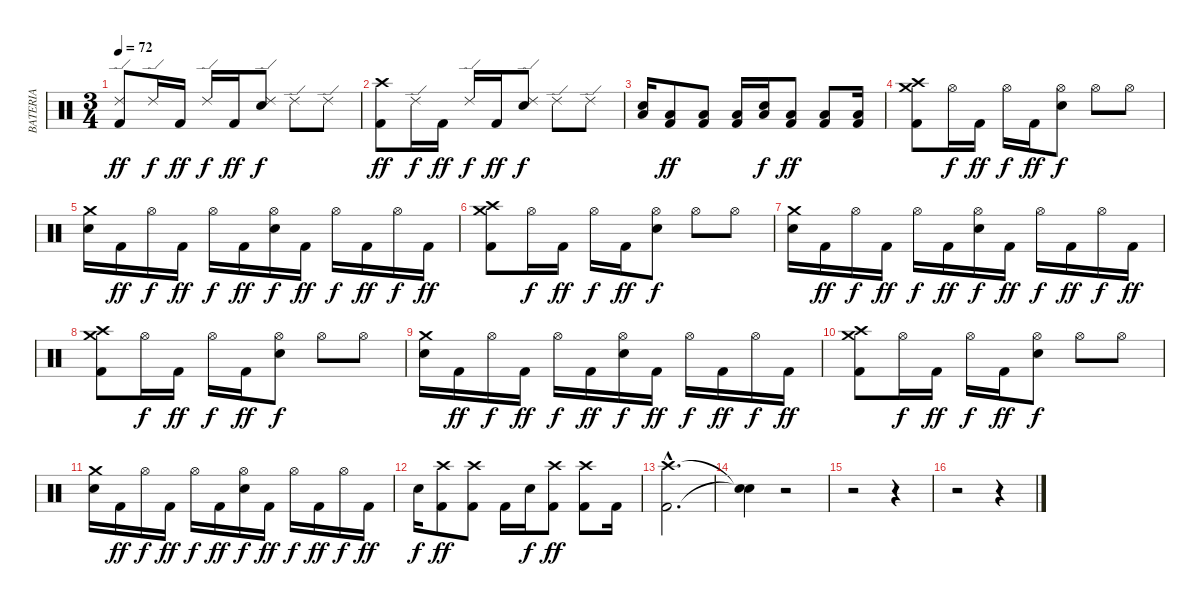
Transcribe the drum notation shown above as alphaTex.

\track ("BATERIA" "BATERIA") {instrument percussion}
\staff {score}
\articulation defaults
\ts (3 4)
\tempo 72
\clef neutral
\ks c
("Ride (edge) 2" "Kick (hit) 2").8{dy ff} "Ride (edge) 2".16{dy f} "Kick (hit) 2".16{dy ff} "Ride (edge) 2".16{dy f} "Kick (hit) 2".16{dy ff} ("Ride (edge) 2" "Snare (hit) 2").8{dy f} "Ride (edge) 2".8 "Ride (edge) 2".8 |
("Crash high (hit)" "Kick (hit) 2").8{dy ff} "Ride (edge) 2".16{dy f} "Kick (hit) 2".16{dy ff} "Ride (edge) 2".16{dy f} "Kick (hit) 2".16{dy ff} ("Ride (edge) 2" "Snare (hit) 2").8{dy f} "Ride (edge) 2".8 "Ride (edge) 2".8 |
("Low Tom (hit)" "Snare (hit) 2").16 ("Low Tom (hit)" "Kick (hit) 2").8{dy ff} ("Low Tom (hit)" "Kick (hit) 2").8 ("Low Tom (hit)" "Kick (hit) 2").16 ("Low Tom (hit)" "Snare (hit) 2").16{dy f} ("Low Tom (hit)" "Kick (hit) 2").8{dy ff} ("Low Tom (hit)" "Kick (hit) 2").8 ("Low Tom (hit)" "Kick (hit) 2").16 |
("Crash high (hit)" "Crash medium (hit)" "Kick (hit) 2").8 "Hi-Hat (open)".16{dy f} "Kick (hit) 2".16{dy ff} "Hi-Hat (open)".16{dy f} "Kick (hit) 2".16{dy ff} ("Hi-Hat (open)" "Snare (hit) 2").8{dy f} "Hi-Hat (open)".8 "Hi-Hat (open)".8 |
("Crash medium (hit)" "Snare (hit) 2").16 "Kick (hit) 2".16{dy ff} "Hi-Hat (open)".16{dy f} "Kick (hit) 2".16{dy ff} "Hi-Hat (open)".16{dy f} "Kick (hit) 2".16{dy ff} ("Hi-Hat (open)" "Snare (hit) 2").16{dy f} "Kick (hit) 2".16{dy ff} "Hi-Hat (open)".16{dy f} "Kick (hit) 2".16{dy ff} "Hi-Hat (open)".16{dy f} "Kick (hit) 2".16{dy ff} |
("Crash high (hit)" "Crash medium (hit)" "Kick (hit) 2").8 "Hi-Hat (open)".16{dy f} "Kick (hit) 2".16{dy ff} "Hi-Hat (open)".16{dy f} "Kick (hit) 2".16{dy ff} ("Hi-Hat (open)" "Snare (hit) 2").8{dy f} "Hi-Hat (open)".8 "Hi-Hat (open)".8 |
("Crash medium (hit)" "Snare (hit) 2").16 "Kick (hit) 2".16{dy ff} "Hi-Hat (open)".16{dy f} "Kick (hit) 2".16{dy ff} "Hi-Hat (open)".16{dy f} "Kick (hit) 2".16{dy ff} ("Hi-Hat (open)" "Snare (hit) 2").16{dy f} "Kick (hit) 2".16{dy ff} "Hi-Hat (open)".16{dy f} "Kick (hit) 2".16{dy ff} "Hi-Hat (open)".16{dy f} "Kick (hit) 2".16{dy ff} |
("Crash high (hit)" "Crash medium (hit)" "Kick (hit) 2").8 "Hi-Hat (open)".16{dy f} "Kick (hit) 2".16{dy ff} "Hi-Hat (open)".16{dy f} "Kick (hit) 2".16{dy ff} ("Hi-Hat (open)" "Snare (hit) 2").8{dy f} "Hi-Hat (open)".8 "Hi-Hat (open)".8 |
("Crash medium (hit)" "Snare (hit) 2").16 "Kick (hit) 2".16{dy ff} "Hi-Hat (open)".16{dy f} "Kick (hit) 2".16{dy ff} "Hi-Hat (open)".16{dy f} "Kick (hit) 2".16{dy ff} ("Hi-Hat (open)" "Snare (hit) 2").16{dy f} "Kick (hit) 2".16{dy ff} "Hi-Hat (open)".16{dy f} "Kick (hit) 2".16{dy ff} "Hi-Hat (open)".16{dy f} "Kick (hit) 2".16{dy ff} |
("Crash high (hit)" "Crash medium (hit)" "Kick (hit) 2").8 "Hi-Hat (open)".16{dy f} "Kick (hit) 2".16{dy ff} "Hi-Hat (open)".16{dy f} "Kick (hit) 2".16{dy ff} ("Hi-Hat (open)" "Snare (hit) 2").8{dy f} "Hi-Hat (open)".8 "Hi-Hat (open)".8 |
("Crash medium (hit)" "Snare (hit) 2").16 "Kick (hit) 2".16{dy ff} "Hi-Hat (open)".16{dy f} "Kick (hit) 2".16{dy ff} "Hi-Hat (open)".16{dy f} "Kick (hit) 2".16{dy ff} ("Hi-Hat (open)" "Snare (hit) 2").16{dy f} "Kick (hit) 2".16{dy ff} "Hi-Hat (open)".16{dy f} "Kick (hit) 2".16{dy ff} "Hi-Hat (open)".16{dy f} "Kick (hit) 2".16{dy ff} |
"Snare (hit) 2".16{dy f} ("Crash high (hit)" "Kick (hit) 2").8{dy ff} ("Crash high (hit)" "Kick (hit) 2").8 "Kick (hit) 2".16 "Snare (hit) 2".16{dy f} ("Crash high (hit)" "Kick (hit) 2").8{dy ff} ("Crash high (hit)" "Kick (hit) 2").8 "Kick (hit) 2".16 |
("Crash high (hit)"{hac} "Kick (hit) 2"{hac}).2{d} |
("Snare (hit)"{t} "Snare (hit)"{t}).4 r.2 |
r.2 r.4 |
r.2 r.4
